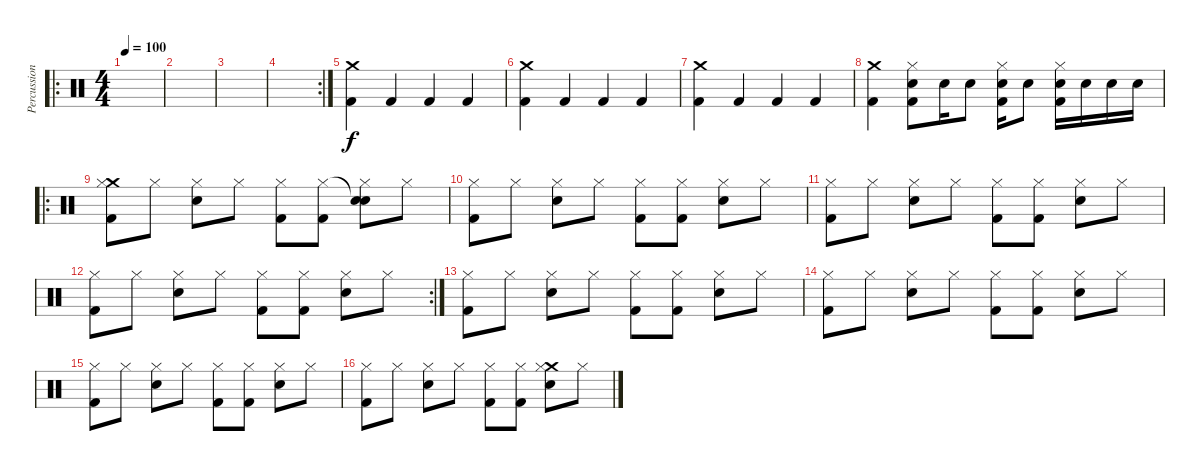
\track ("Percussions" "Percussion") {instrument percussion}
\staff {score}
\articulation defaults
\ro
\ts (4 4)
\tempo 100
\clef neutral
\ks c
|
|
|
\rc 2
|
("Kick (hit) 2" "Crash medium (hit)").4 "Kick (hit) 2".4 "Kick (hit) 2".4 "Kick (hit) 2".4 |
("Kick (hit) 2" "Crash medium (hit)").4 "Kick (hit) 2".4 "Kick (hit) 2".4 "Kick (hit) 2".4 |
("Kick (hit) 2" "Crash medium (hit)").4 "Kick (hit) 2".4 "Kick (hit) 2".4 "Kick (hit) 2".4 |
("Kick (hit) 2" "Crash medium (hit)").4 ("Kick (hit) 2" "Electric Snare (hit)" "Hi-Hat (closed)").8 "Electric Snare (hit)".16 "Electric Snare (hit)".8 ("Kick (hit) 2" "Electric Snare (hit)" "Hi-Hat (closed)").16 "Electric Snare (hit)".8 ("Kick (hit) 2" "Electric Snare (hit)" "Hi-Hat (closed)").16 "Electric Snare (hit)".16 "Electric Snare (hit)".16 "Electric Snare (hit)".16 |
\ro
("Kick (hit) 2" "Crash medium (hit)" "Hi-Hat (closed)").8 "Hi-Hat (closed)".8 ("Electric Snare (hit)" "Hi-Hat (closed)").8 "Hi-Hat (closed)".8 ("Kick (hit) 2" "Hi-Hat (closed)").8 ("Kick (hit) 2" "Hi-Hat (closed)").8 ("Electric Snare (hit)" "Snare (hit)"{t} "Hi-Hat (closed)").8 "Hi-Hat (closed)".8 |
("Kick (hit) 2" "Hi-Hat (closed)").8 "Hi-Hat (closed)".8 ("Electric Snare (hit)" "Hi-Hat (closed)").8 "Hi-Hat (closed)".8 ("Kick (hit) 2" "Hi-Hat (closed)").8 ("Kick (hit) 2" "Hi-Hat (closed)").8 ("Electric Snare (hit)" "Hi-Hat (closed)").8 "Hi-Hat (closed)".8 |
("Kick (hit) 2" "Hi-Hat (closed)").8 "Hi-Hat (closed)".8 ("Electric Snare (hit)" "Hi-Hat (closed)").8 "Hi-Hat (closed)".8 ("Kick (hit) 2" "Hi-Hat (closed)").8 ("Kick (hit) 2" "Hi-Hat (closed)").8 ("Electric Snare (hit)" "Hi-Hat (closed)").8 "Hi-Hat (closed)".8 |
\rc 2
("Kick (hit) 2" "Hi-Hat (closed)").8 "Hi-Hat (closed)".8 ("Electric Snare (hit)" "Hi-Hat (closed)").8 "Hi-Hat (closed)".8 ("Kick (hit) 2" "Hi-Hat (closed)").8 ("Kick (hit) 2" "Hi-Hat (closed)").8 ("Electric Snare (hit)" "Hi-Hat (closed)").8 "Hi-Hat (closed)".8 |
("Kick (hit) 2" "Hi-Hat (closed)").8 "Hi-Hat (closed)".8 ("Electric Snare (hit)" "Hi-Hat (closed)").8 "Hi-Hat (closed)".8 ("Kick (hit) 2" "Hi-Hat (closed)").8 ("Kick (hit) 2" "Hi-Hat (closed)").8 ("Electric Snare (hit)" "Hi-Hat (closed)").8 "Hi-Hat (closed)".8 |
("Kick (hit) 2" "Hi-Hat (closed)").8 "Hi-Hat (closed)".8 ("Electric Snare (hit)" "Hi-Hat (closed)").8 "Hi-Hat (closed)".8 ("Kick (hit) 2" "Hi-Hat (closed)").8 ("Kick (hit) 2" "Hi-Hat (closed)").8 ("Electric Snare (hit)" "Hi-Hat (closed)").8 "Hi-Hat (closed)".8 |
("Kick (hit) 2" "Hi-Hat (closed)").8 "Hi-Hat (closed)".8 ("Electric Snare (hit)" "Hi-Hat (closed)").8 "Hi-Hat (closed)".8 ("Kick (hit) 2" "Hi-Hat (closed)").8 ("Kick (hit) 2" "Hi-Hat (closed)").8 ("Electric Snare (hit)" "Hi-Hat (closed)").8 "Hi-Hat (closed)".8 |
("Kick (hit) 2" "Hi-Hat (closed)").8 "Hi-Hat (closed)".8 ("Electric Snare (hit)" "Hi-Hat (closed)").8 "Hi-Hat (closed)".8 ("Kick (hit) 2" "Hi-Hat (closed)").8 ("Kick (hit) 2" "Hi-Hat (closed)").8 ("Crash medium (hit)" "Electric Snare (hit)" "Hi-Hat (closed)").8 "Hi-Hat (closed)".8
